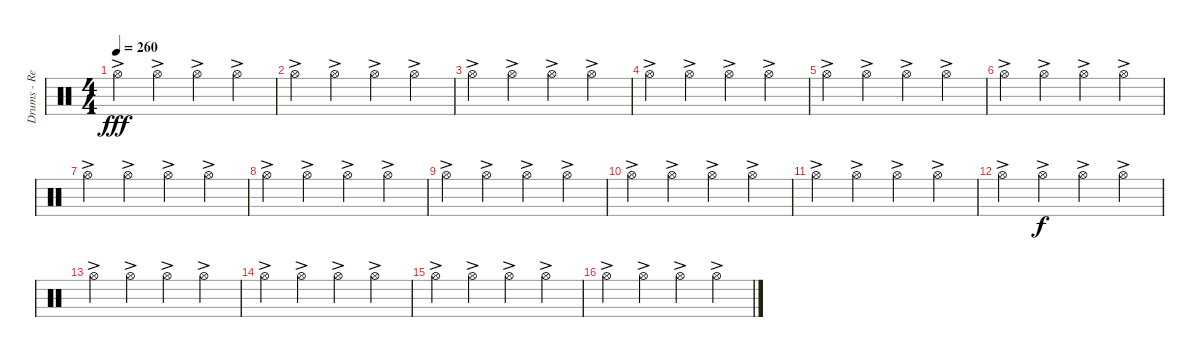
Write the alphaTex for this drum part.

\track ("Drums - Re'a Mochiach" "Drums - Re") {instrument percussion}
\staff {score}
\articulation defaults
\ts (4 4)
\tempo 260
\clef neutral
\ks c "Hi-Hat (open)"{ac}.4{dy fff} "Hi-Hat (open)"{ac}.4 "Hi-Hat (open)"{ac}.4 "Hi-Hat (open)"{ac}.4
|
"Hi-Hat (open)"{ac}.4 "Hi-Hat (open)"{ac}.4 "Hi-Hat (open)"{ac}.4 "Hi-Hat (open)"{ac}.4 |
"Hi-Hat (open)"{ac}.4 "Hi-Hat (open)"{ac}.4 "Hi-Hat (open)"{ac}.4 "Hi-Hat (open)"{ac}.4 |
"Hi-Hat (open)"{ac}.4 "Hi-Hat (open)"{ac}.4 "Hi-Hat (open)"{ac}.4 "Hi-Hat (open)"{ac}.4 |
"Hi-Hat (open)"{ac}.4 "Hi-Hat (open)"{ac}.4 "Hi-Hat (open)"{ac}.4 "Hi-Hat (open)"{ac}.4 |
"Hi-Hat (open)"{ac}.4 "Hi-Hat (open)"{ac}.4 "Hi-Hat (open)"{ac}.4 "Hi-Hat (open)"{ac}.4 |
"Hi-Hat (open)"{ac}.4 "Hi-Hat (open)"{ac}.4 "Hi-Hat (open)"{ac}.4 "Hi-Hat (open)"{ac}.4 |
"Hi-Hat (open)"{ac}.4 "Hi-Hat (open)"{ac}.4 "Hi-Hat (open)"{ac}.4 "Hi-Hat (open)"{ac}.4 |
"Hi-Hat (open)"{ac}.4 "Hi-Hat (open)"{ac}.4 "Hi-Hat (open)"{ac}.4 "Hi-Hat (open)"{ac}.4 |
"Hi-Hat (open)"{ac}.4 "Hi-Hat (open)"{ac}.4 "Hi-Hat (open)"{ac}.4 "Hi-Hat (open)"{ac}.4 |
"Hi-Hat (open)"{ac}.4 "Hi-Hat (open)"{ac}.4 "Hi-Hat (open)"{ac}.4 "Hi-Hat (open)"{ac}.4 |
"Hi-Hat (open)"{ac}.4 "Hi-Hat (open)"{ac}.4{dy f} "Hi-Hat (open)"{ac}.4 "Hi-Hat (open)"{ac}.4 |
"Hi-Hat (open)"{ac}.4 "Hi-Hat (open)"{ac}.4 "Hi-Hat (open)"{ac}.4 "Hi-Hat (open)"{ac}.4 |
"Hi-Hat (open)"{ac}.4 "Hi-Hat (open)"{ac}.4 "Hi-Hat (open)"{ac}.4 "Hi-Hat (open)"{ac}.4 |
"Hi-Hat (open)"{ac}.4 "Hi-Hat (open)"{ac}.4 "Hi-Hat (open)"{ac}.4 "Hi-Hat (open)"{ac}.4 |
"Hi-Hat (open)"{ac}.4 "Hi-Hat (open)"{ac}.4 "Hi-Hat (open)"{ac}.4 "Hi-Hat (open)"{ac}.4
